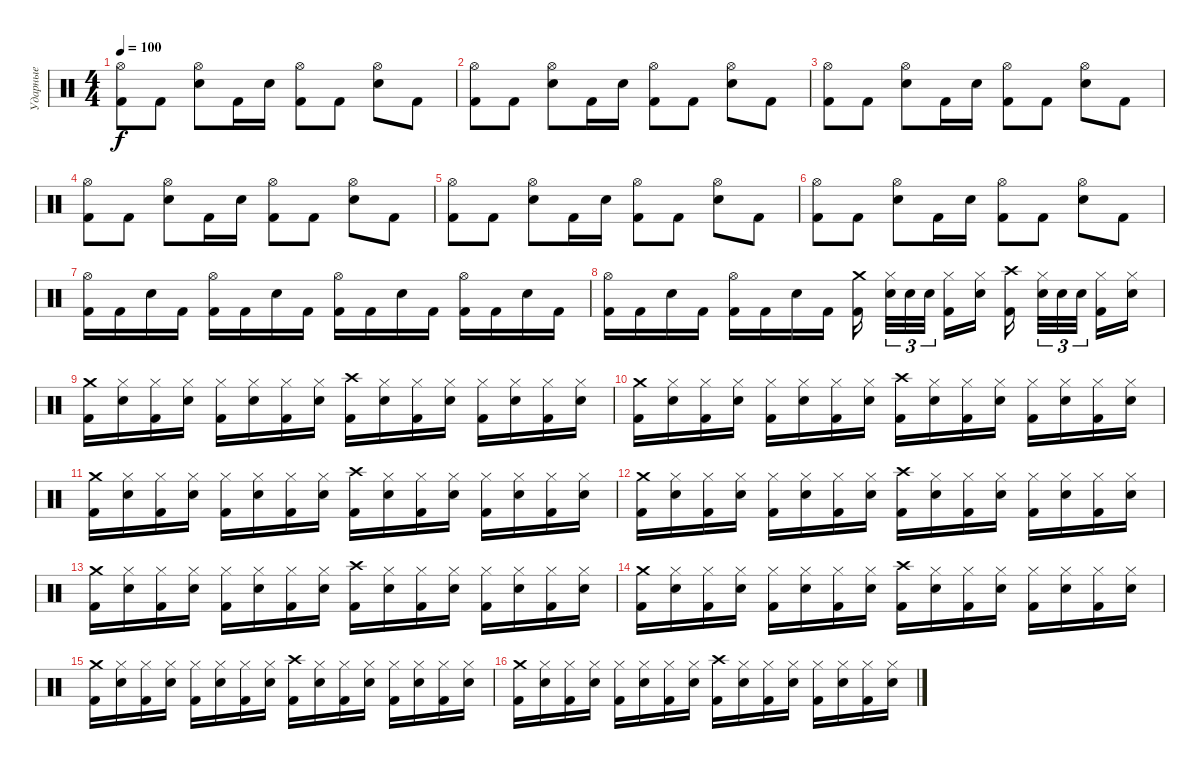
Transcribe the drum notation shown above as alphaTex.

\track ("Ударные" "Ударные") {instrument percussion}
\staff {score}
\articulation defaults
\ts (4 4)
\tempo 100
\clef neutral
\ks c
("Hi-Hat (open)" "Kick (hit) 2").8{dy f} "Kick (hit) 2".8 ("Hi-Hat (open)" "Snare (hit) 2").8 "Kick (hit) 2".16 "Snare (hit) 2".16 ("Hi-Hat (open)" "Kick (hit) 2").8 "Kick (hit) 2".8 ("Hi-Hat (open)" "Snare (hit) 2").8 "Kick (hit) 2".8 |
("Hi-Hat (open)" "Kick (hit) 2").8 "Kick (hit) 2".8 ("Hi-Hat (open)" "Snare (hit) 2").8 "Kick (hit) 2".16 "Snare (hit) 2".16 ("Hi-Hat (open)" "Kick (hit) 2").8 "Kick (hit) 2".8 ("Hi-Hat (open)" "Snare (hit) 2").8 "Kick (hit) 2".8 |
("Hi-Hat (open)" "Kick (hit) 2").8 "Kick (hit) 2".8 ("Hi-Hat (open)" "Snare (hit) 2").8 "Kick (hit) 2".16 "Snare (hit) 2".16 ("Hi-Hat (open)" "Kick (hit) 2").8 "Kick (hit) 2".8 ("Hi-Hat (open)" "Snare (hit) 2").8 "Kick (hit) 2".8 |
("Hi-Hat (open)" "Kick (hit) 2").8 "Kick (hit) 2".8 ("Hi-Hat (open)" "Snare (hit) 2").8 "Kick (hit) 2".16 "Snare (hit) 2".16 ("Hi-Hat (open)" "Kick (hit) 2").8 "Kick (hit) 2".8 ("Hi-Hat (open)" "Snare (hit) 2").8 "Kick (hit) 2".8 |
("Hi-Hat (open)" "Kick (hit) 2").8 "Kick (hit) 2".8 ("Hi-Hat (open)" "Snare (hit) 2").8 "Kick (hit) 2".16 "Snare (hit) 2".16 ("Hi-Hat (open)" "Kick (hit) 2").8 "Kick (hit) 2".8 ("Hi-Hat (open)" "Snare (hit) 2").8 "Kick (hit) 2".8 |
("Hi-Hat (open)" "Kick (hit) 2").8 "Kick (hit) 2".8 ("Hi-Hat (open)" "Snare (hit) 2").8 "Kick (hit) 2".16 "Snare (hit) 2".16 ("Hi-Hat (open)" "Kick (hit) 2").8 "Kick (hit) 2".8 ("Hi-Hat (open)" "Snare (hit) 2").8 "Kick (hit) 2".8 |
("Hi-Hat (open)" "Kick (hit) 2").16 "Kick (hit) 2".16 "Snare (hit) 2".16 "Kick (hit) 2".16 ("Hi-Hat (open)" "Kick (hit) 2").16 "Kick (hit) 2".16 "Snare (hit) 2".16 "Kick (hit) 2".16 ("Hi-Hat (open)" "Kick (hit) 2").16 "Kick (hit) 2".16 "Snare (hit) 2".16 "Kick (hit) 2".16 ("Hi-Hat (open)" "Kick (hit) 2").16 "Kick (hit) 2".16 "Snare (hit) 2".16 "Kick (hit) 2".16 |
("Hi-Hat (open)" "Kick (hit) 2").16 "Kick (hit) 2".16 "Snare (hit) 2".16 "Kick (hit) 2".16 ("Hi-Hat (open)" "Kick (hit) 2").16 "Kick (hit) 2".16 "Snare (hit) 2".16 "Kick (hit) 2".16 ("Crash medium (hit)" "Kick (hit) 2").16{beam splitsecondary} ("Hi-Hat (closed)" "Snare (hit) 2").32{tu (3 2)} "Snare (hit) 2".32{tu (3 2)} "Snare (hit) 2".32{tu (3 2) beam splitsecondary} ("Hi-Hat (closed)" "Kick (hit) 2").16 ("Hi-Hat (closed)" "Snare (hit) 2").16 ("Crash high (hit)" "Kick (hit) 2").16{beam splitsecondary} ("Hi-Hat (closed)" "Snare (hit) 2").32{tu (3 2)} "Snare (hit) 2".32{tu (3 2)} "Snare (hit) 2".32{tu (3 2) beam splitsecondary} ("Hi-Hat (closed)" "Kick (hit) 2").16 ("Hi-Hat (closed)" "Snare (hit) 2").16 |
("Crash medium (hit)" "Kick (hit) 2").16 ("Hi-Hat (closed)" "Snare (hit) 2").16 ("Hi-Hat (closed)" "Kick (hit) 2").16 ("Hi-Hat (closed)" "Snare (hit) 2").16 ("Hi-Hat (closed)" "Kick (hit) 2").16 ("Hi-Hat (closed)" "Snare (hit) 2").16 ("Hi-Hat (closed)" "Kick (hit) 2").16 ("Hi-Hat (closed)" "Snare (hit) 2").16 ("Crash high (hit)" "Kick (hit) 2").16 ("Hi-Hat (closed)" "Snare (hit) 2").16 ("Hi-Hat (closed)" "Kick (hit) 2").16 ("Hi-Hat (closed)" "Snare (hit) 2").16 ("Hi-Hat (closed)" "Kick (hit) 2").16 ("Hi-Hat (closed)" "Snare (hit) 2").16 ("Hi-Hat (closed)" "Kick (hit) 2").16 ("Hi-Hat (closed)" "Snare (hit) 2").16 |
("Crash medium (hit)" "Kick (hit) 2").16 ("Hi-Hat (closed)" "Snare (hit) 2").16 ("Hi-Hat (closed)" "Kick (hit) 2").16 ("Hi-Hat (closed)" "Snare (hit) 2").16 ("Hi-Hat (closed)" "Kick (hit) 2").16 ("Hi-Hat (closed)" "Snare (hit) 2").16 ("Hi-Hat (closed)" "Kick (hit) 2").16 ("Hi-Hat (closed)" "Snare (hit) 2").16 ("Crash high (hit)" "Kick (hit) 2").16 ("Hi-Hat (closed)" "Snare (hit) 2").16 ("Hi-Hat (closed)" "Kick (hit) 2").16 ("Hi-Hat (closed)" "Snare (hit) 2").16 ("Hi-Hat (closed)" "Kick (hit) 2").16 ("Hi-Hat (closed)" "Snare (hit) 2").16 ("Hi-Hat (closed)" "Kick (hit) 2").16 ("Hi-Hat (closed)" "Snare (hit) 2").16 |
("Crash medium (hit)" "Kick (hit) 2").16 ("Hi-Hat (closed)" "Snare (hit) 2").16 ("Hi-Hat (closed)" "Kick (hit) 2").16 ("Hi-Hat (closed)" "Snare (hit) 2").16 ("Hi-Hat (closed)" "Kick (hit) 2").16 ("Hi-Hat (closed)" "Snare (hit) 2").16 ("Hi-Hat (closed)" "Kick (hit) 2").16 ("Hi-Hat (closed)" "Snare (hit) 2").16 ("Crash high (hit)" "Kick (hit) 2").16 ("Hi-Hat (closed)" "Snare (hit) 2").16 ("Hi-Hat (closed)" "Kick (hit) 2").16 ("Hi-Hat (closed)" "Snare (hit) 2").16 ("Hi-Hat (closed)" "Kick (hit) 2").16 ("Hi-Hat (closed)" "Snare (hit) 2").16 ("Hi-Hat (closed)" "Kick (hit) 2").16 ("Hi-Hat (closed)" "Snare (hit) 2").16 |
("Crash medium (hit)" "Kick (hit) 2").16 ("Hi-Hat (closed)" "Snare (hit) 2").16 ("Hi-Hat (closed)" "Kick (hit) 2").16 ("Hi-Hat (closed)" "Snare (hit) 2").16 ("Hi-Hat (closed)" "Kick (hit) 2").16 ("Hi-Hat (closed)" "Snare (hit) 2").16 ("Hi-Hat (closed)" "Kick (hit) 2").16 ("Hi-Hat (closed)" "Snare (hit) 2").16 ("Crash high (hit)" "Kick (hit) 2").16 ("Hi-Hat (closed)" "Snare (hit) 2").16 ("Hi-Hat (closed)" "Kick (hit) 2").16 ("Hi-Hat (closed)" "Snare (hit) 2").16 ("Hi-Hat (closed)" "Kick (hit) 2").16 ("Hi-Hat (closed)" "Snare (hit) 2").16 ("Hi-Hat (closed)" "Kick (hit) 2").16 ("Hi-Hat (closed)" "Snare (hit) 2").16 |
("Crash medium (hit)" "Kick (hit) 2").16 ("Hi-Hat (closed)" "Snare (hit) 2").16 ("Hi-Hat (closed)" "Kick (hit) 2").16 ("Hi-Hat (closed)" "Snare (hit) 2").16 ("Hi-Hat (closed)" "Kick (hit) 2").16 ("Hi-Hat (closed)" "Snare (hit) 2").16 ("Hi-Hat (closed)" "Kick (hit) 2").16 ("Hi-Hat (closed)" "Snare (hit) 2").16 ("Crash high (hit)" "Kick (hit) 2").16 ("Hi-Hat (closed)" "Snare (hit) 2").16 ("Hi-Hat (closed)" "Kick (hit) 2").16 ("Hi-Hat (closed)" "Snare (hit) 2").16 ("Hi-Hat (closed)" "Kick (hit) 2").16 ("Hi-Hat (closed)" "Snare (hit) 2").16 ("Hi-Hat (closed)" "Kick (hit) 2").16 ("Hi-Hat (closed)" "Snare (hit) 2").16 |
("Crash medium (hit)" "Kick (hit) 2").16 ("Hi-Hat (closed)" "Snare (hit) 2").16 ("Hi-Hat (closed)" "Kick (hit) 2").16 ("Hi-Hat (closed)" "Snare (hit) 2").16 ("Hi-Hat (closed)" "Kick (hit) 2").16 ("Hi-Hat (closed)" "Snare (hit) 2").16 ("Hi-Hat (closed)" "Kick (hit) 2").16 ("Hi-Hat (closed)" "Snare (hit) 2").16 ("Crash high (hit)" "Kick (hit) 2").16 ("Hi-Hat (closed)" "Snare (hit) 2").16 ("Hi-Hat (closed)" "Kick (hit) 2").16 ("Hi-Hat (closed)" "Snare (hit) 2").16 ("Hi-Hat (closed)" "Kick (hit) 2").16 ("Hi-Hat (closed)" "Snare (hit) 2").16 ("Hi-Hat (closed)" "Kick (hit) 2").16 ("Hi-Hat (closed)" "Snare (hit) 2").16 |
("Crash medium (hit)" "Kick (hit) 2").16 ("Hi-Hat (closed)" "Snare (hit) 2").16 ("Hi-Hat (closed)" "Kick (hit) 2").16 ("Hi-Hat (closed)" "Snare (hit) 2").16 ("Hi-Hat (closed)" "Kick (hit) 2").16 ("Hi-Hat (closed)" "Snare (hit) 2").16 ("Hi-Hat (closed)" "Kick (hit) 2").16 ("Hi-Hat (closed)" "Snare (hit) 2").16 ("Crash high (hit)" "Kick (hit) 2").16 ("Hi-Hat (closed)" "Snare (hit) 2").16 ("Hi-Hat (closed)" "Kick (hit) 2").16 ("Hi-Hat (closed)" "Snare (hit) 2").16 ("Hi-Hat (closed)" "Kick (hit) 2").16 ("Hi-Hat (closed)" "Snare (hit) 2").16 ("Hi-Hat (closed)" "Kick (hit) 2").16 ("Hi-Hat (closed)" "Snare (hit) 2").16 |
("Crash medium (hit)" "Kick (hit) 2").16 ("Hi-Hat (closed)" "Snare (hit) 2").16 ("Hi-Hat (closed)" "Kick (hit) 2").16 ("Hi-Hat (closed)" "Snare (hit) 2").16 ("Hi-Hat (closed)" "Kick (hit) 2").16 ("Hi-Hat (closed)" "Snare (hit) 2").16 ("Hi-Hat (closed)" "Kick (hit) 2").16 ("Hi-Hat (closed)" "Snare (hit) 2").16 ("Crash high (hit)" "Kick (hit) 2").16 ("Hi-Hat (closed)" "Snare (hit) 2").16 ("Hi-Hat (closed)" "Kick (hit) 2").16 ("Hi-Hat (closed)" "Snare (hit) 2").16 ("Hi-Hat (closed)" "Kick (hit) 2").16 ("Hi-Hat (closed)" "Snare (hit) 2").16 ("Hi-Hat (closed)" "Kick (hit) 2").16 ("Hi-Hat (closed)" "Snare (hit) 2").16
